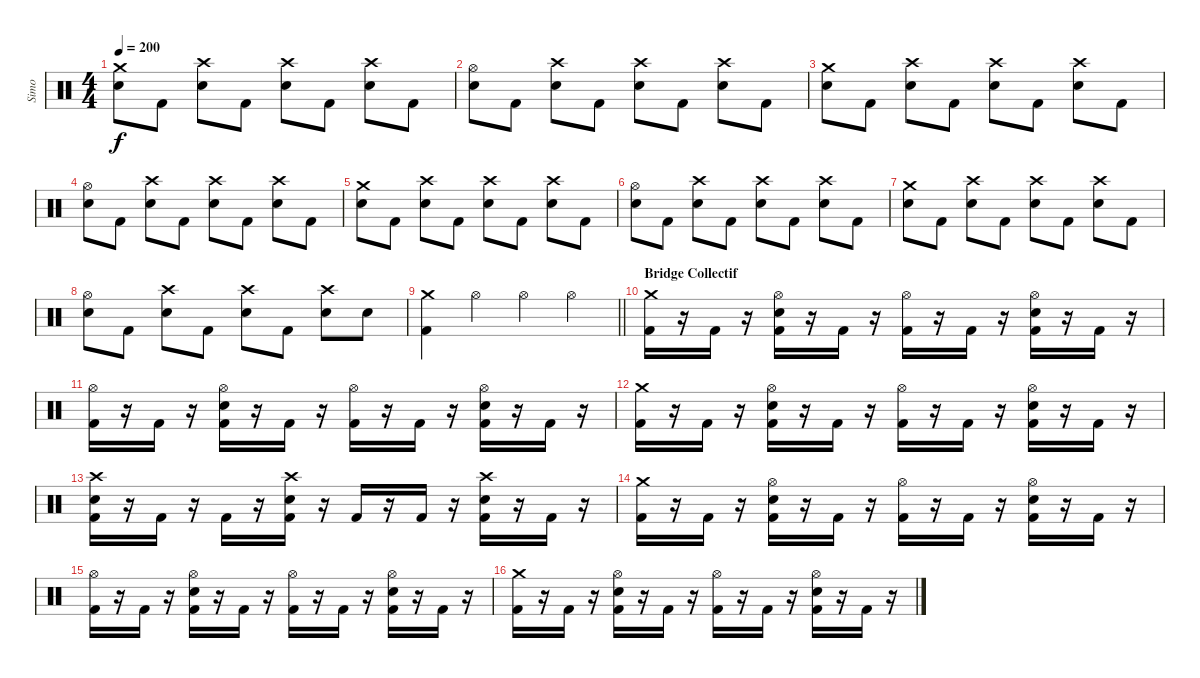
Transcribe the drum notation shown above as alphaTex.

\track ("Simo" "Simo") {instrument percussion bank 121}
\staff {score}
\articulation defaults
\ts (4 4)
\tempo 200
\clef neutral
\ks c
("Electric Snare (hit)" "Crash medium (hit)").8{dy f} "Kick (hit) 2".8 ("Electric Snare (hit)" "Crash high (hit)").8 "Kick (hit) 2".8 ("Electric Snare (hit)" "Crash high (hit)").8 "Kick (hit) 2".8 ("Electric Snare (hit)" "Crash high (hit)").8 "Kick (hit) 2".8 |
("Electric Snare (hit)" "Hi-Hat (open)").8 "Kick (hit) 2".8 ("Electric Snare (hit)" "Crash high (hit)").8 "Kick (hit) 2".8 ("Electric Snare (hit)" "Crash high (hit)").8 "Kick (hit) 2".8 ("Electric Snare (hit)" "Crash high (hit)").8 "Kick (hit) 2".8 |
("Electric Snare (hit)" "Crash medium (hit)").8 "Kick (hit) 2".8 ("Electric Snare (hit)" "Crash high (hit)").8 "Kick (hit) 2".8 ("Electric Snare (hit)" "Crash high (hit)").8 "Kick (hit) 2".8 ("Electric Snare (hit)" "Crash high (hit)").8 "Kick (hit) 2".8 |
("Electric Snare (hit)" "Hi-Hat (open)").8 "Kick (hit) 2".8 ("Electric Snare (hit)" "Crash high (hit)").8 "Kick (hit) 2".8 ("Electric Snare (hit)" "Crash high (hit)").8 "Kick (hit) 2".8 ("Electric Snare (hit)" "Crash high (hit)").8 "Kick (hit) 2".8 |
("Electric Snare (hit)" "Crash medium (hit)").8 "Kick (hit) 2".8 ("Electric Snare (hit)" "Crash high (hit)").8 "Kick (hit) 2".8 ("Electric Snare (hit)" "Crash high (hit)").8 "Kick (hit) 2".8 ("Electric Snare (hit)" "Crash high (hit)").8 "Kick (hit) 2".8 |
("Electric Snare (hit)" "Hi-Hat (open)").8 "Kick (hit) 2".8 ("Electric Snare (hit)" "Crash high (hit)").8 "Kick (hit) 2".8 ("Electric Snare (hit)" "Crash high (hit)").8 "Kick (hit) 2".8 ("Electric Snare (hit)" "Crash high (hit)").8 "Kick (hit) 2".8 |
("Electric Snare (hit)" "Crash medium (hit)").8 "Kick (hit) 2".8 ("Electric Snare (hit)" "Crash high (hit)").8 "Kick (hit) 2".8 ("Electric Snare (hit)" "Crash high (hit)").8 "Kick (hit) 2".8 ("Electric Snare (hit)" "Crash high (hit)").8 "Kick (hit) 2".8 |
("Electric Snare (hit)" "Hi-Hat (open)").8 "Kick (hit) 2".8 ("Electric Snare (hit)" "Crash high (hit)").8 "Kick (hit) 2".8 ("Electric Snare (hit)" "Crash high (hit)").8 "Kick (hit) 2".8 ("Electric Snare (hit)" "Crash high (hit)").8 "Electric Snare (hit)".8 |
\barLineRight lightlight
("Kick (hit) 2" "Crash medium (hit)").4 "Hi-Hat (open)".4 "Hi-Hat (open)".4 "Hi-Hat (open)".4 |
\section ("" "Bridge Collectif ")
("Kick (hit) 2" "Crash medium (hit)").16 r.16 "Kick (hit) 2".16 r.16 ("Kick (hit) 2" "Electric Snare (hit)" "Hi-Hat (open)").16 r.16 "Kick (hit) 2".16 r.16 ("Kick (hit) 2" "Hi-Hat (open)").16 r.16 "Kick (hit) 2".16 r.16 ("Kick (hit) 2" "Electric Snare (hit)" "Hi-Hat (open)").16 r.16 "Kick (hit) 2".16 r.16 |
("Kick (hit) 2" "Hi-Hat (open)").16 r.16 "Kick (hit) 2".16 r.16 ("Kick (hit) 2" "Electric Snare (hit)" "Hi-Hat (open)").16 r.16 "Kick (hit) 2".16 r.16 ("Kick (hit) 2" "Hi-Hat (open)").16 r.16 "Kick (hit) 2".16 r.16 ("Kick (hit) 2" "Electric Snare (hit)" "Hi-Hat (open)").16 r.16 "Kick (hit) 2".16 r.16 |
("Kick (hit) 2" "Crash medium (hit)").16 r.16 "Kick (hit) 2".16 r.16 ("Kick (hit) 2" "Electric Snare (hit)" "Hi-Hat (open)").16 r.16 "Kick (hit) 2".16 r.16 ("Kick (hit) 2" "Hi-Hat (open)").16 r.16 "Kick (hit) 2".16 r.16 ("Kick (hit) 2" "Electric Snare (hit)" "Hi-Hat (open)").16 r.16 "Kick (hit) 2".16 r.16 |
("Kick (hit) 2" "Electric Snare (hit)" "Crash high (hit)").16 r.16 "Kick (hit) 2".16 r.16 "Kick (hit) 2".16 r.16 ("Kick (hit) 2" "Electric Snare (hit)" "Crash high (hit)").16 r.16 "Kick (hit) 2".16 r.16 "Kick (hit) 2".16 r.16 ("Kick (hit) 2" "Electric Snare (hit)" "Crash high (hit)").16 r.16 "Kick (hit) 2".16 r.16 |
("Kick (hit) 2" "Crash medium (hit)").16 r.16 "Kick (hit) 2".16 r.16 ("Kick (hit) 2" "Electric Snare (hit)" "Hi-Hat (open)").16 r.16 "Kick (hit) 2".16 r.16 ("Kick (hit) 2" "Hi-Hat (open)").16 r.16 "Kick (hit) 2".16 r.16 ("Kick (hit) 2" "Electric Snare (hit)" "Hi-Hat (open)").16 r.16 "Kick (hit) 2".16 r.16 |
("Kick (hit) 2" "Hi-Hat (open)").16 r.16 "Kick (hit) 2".16 r.16 ("Kick (hit) 2" "Electric Snare (hit)" "Hi-Hat (open)").16 r.16 "Kick (hit) 2".16 r.16 ("Kick (hit) 2" "Hi-Hat (open)").16 r.16 "Kick (hit) 2".16 r.16 ("Kick (hit) 2" "Electric Snare (hit)" "Hi-Hat (open)").16 r.16 "Kick (hit) 2".16 r.16 |
("Kick (hit) 2" "Crash medium (hit)").16 r.16 "Kick (hit) 2".16 r.16 ("Kick (hit) 2" "Electric Snare (hit)" "Hi-Hat (open)").16 r.16 "Kick (hit) 2".16 r.16 ("Kick (hit) 2" "Hi-Hat (open)").16 r.16 "Kick (hit) 2".16 r.16 ("Kick (hit) 2" "Electric Snare (hit)" "Hi-Hat (open)").16 r.16 "Kick (hit) 2".16 r.16
